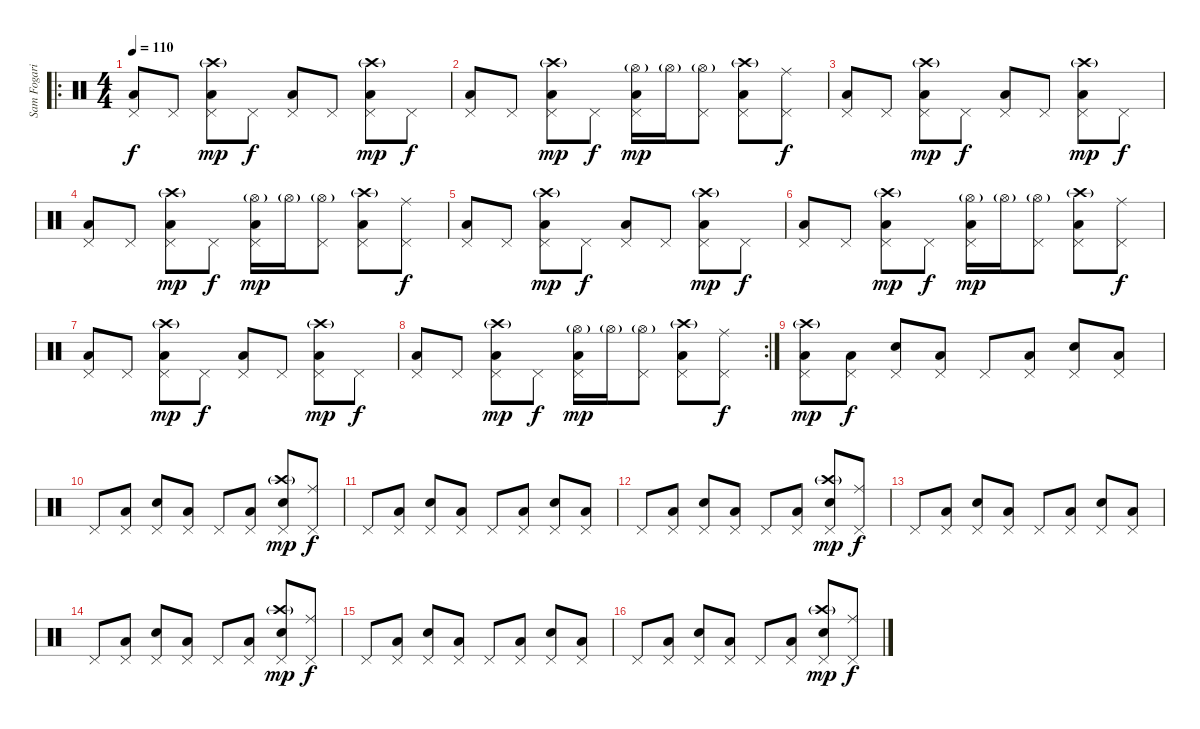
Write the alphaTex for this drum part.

\track ("Sam Fogarino (Drums)" "Sam Fogari") {instrument percussion}
\staff {score}
\articulation defaults
\ro
\ts (4 4)
\tempo 110
\clef neutral
\ks c
("Low Tom (hit)" "Pedal Hi-Hat (hit)").8{dy f} "Pedal Hi-Hat (hit)".8 ("Crash high (hit)"{g} "Low Tom (hit)" "Pedal Hi-Hat (hit)").8{dy mp} "Pedal Hi-Hat (hit)".8{dy f} ("Low Tom (hit)" "Pedal Hi-Hat (hit)").8 "Pedal Hi-Hat (hit)".8 ("Crash high (hit)"{g} "Low Tom (hit)" "Pedal Hi-Hat (hit)").8{dy mp} "Pedal Hi-Hat (hit)".8{dy f} |
("Low Tom (hit)" "Pedal Hi-Hat (hit)").8 "Pedal Hi-Hat (hit)".8 ("Crash high (hit)"{g} "Low Tom (hit)" "Pedal Hi-Hat (hit)").8{dy mp} "Pedal Hi-Hat (hit)".8{dy f} ("Hi-Hat (open)"{g} "Low Tom (hit)" "Pedal Hi-Hat (hit)").16{dy mp} "Hi-Hat (open)"{g}.16 ("Hi-Hat (open)"{g} "Pedal Hi-Hat (hit)").8 ("Crash high (hit)"{g} "Low Tom (hit)" "Pedal Hi-Hat (hit)").8 ("Ride (middle)" "Pedal Hi-Hat (hit)").8{dy f} |
("Low Tom (hit)" "Pedal Hi-Hat (hit)").8 "Pedal Hi-Hat (hit)".8 ("Crash high (hit)"{g} "Low Tom (hit)" "Pedal Hi-Hat (hit)").8{dy mp} "Pedal Hi-Hat (hit)".8{dy f} ("Low Tom (hit)" "Pedal Hi-Hat (hit)").8 "Pedal Hi-Hat (hit)".8 ("Crash high (hit)"{g} "Low Tom (hit)" "Pedal Hi-Hat (hit)").8{dy mp} "Pedal Hi-Hat (hit)".8{dy f} |
("Low Tom (hit)" "Pedal Hi-Hat (hit)").8 "Pedal Hi-Hat (hit)".8 ("Crash high (hit)"{g} "Low Tom (hit)" "Pedal Hi-Hat (hit)").8{dy mp} "Pedal Hi-Hat (hit)".8{dy f} ("Hi-Hat (open)"{g} "Low Tom (hit)" "Pedal Hi-Hat (hit)").16{dy mp} "Hi-Hat (open)"{g}.16 ("Hi-Hat (open)"{g} "Pedal Hi-Hat (hit)").8 ("Crash high (hit)"{g} "Low Tom (hit)" "Pedal Hi-Hat (hit)").8 ("Ride (middle)" "Pedal Hi-Hat (hit)").8{dy f} |
("Low Tom (hit)" "Pedal Hi-Hat (hit)").8 "Pedal Hi-Hat (hit)".8 ("Crash high (hit)"{g} "Low Tom (hit)" "Pedal Hi-Hat (hit)").8{dy mp} "Pedal Hi-Hat (hit)".8{dy f} ("Low Tom (hit)" "Pedal Hi-Hat (hit)").8 "Pedal Hi-Hat (hit)".8 ("Crash high (hit)"{g} "Low Tom (hit)" "Pedal Hi-Hat (hit)").8{dy mp} "Pedal Hi-Hat (hit)".8{dy f} |
("Low Tom (hit)" "Pedal Hi-Hat (hit)").8 "Pedal Hi-Hat (hit)".8 ("Crash high (hit)"{g} "Low Tom (hit)" "Pedal Hi-Hat (hit)").8{dy mp} "Pedal Hi-Hat (hit)".8{dy f} ("Hi-Hat (open)"{g} "Low Tom (hit)" "Pedal Hi-Hat (hit)").16{dy mp} "Hi-Hat (open)"{g}.16 ("Hi-Hat (open)"{g} "Pedal Hi-Hat (hit)").8 ("Crash high (hit)"{g} "Low Tom (hit)" "Pedal Hi-Hat (hit)").8 ("Ride (middle)" "Pedal Hi-Hat (hit)").8{dy f} |
("Low Tom (hit)" "Pedal Hi-Hat (hit)").8 "Pedal Hi-Hat (hit)".8 ("Crash high (hit)"{g} "Low Tom (hit)" "Pedal Hi-Hat (hit)").8{dy mp} "Pedal Hi-Hat (hit)".8{dy f} ("Low Tom (hit)" "Pedal Hi-Hat (hit)").8 "Pedal Hi-Hat (hit)".8 ("Crash high (hit)"{g} "Low Tom (hit)" "Pedal Hi-Hat (hit)").8{dy mp} "Pedal Hi-Hat (hit)".8{dy f} |
\rc 2
("Low Tom (hit)" "Pedal Hi-Hat (hit)").8 "Pedal Hi-Hat (hit)".8 ("Crash high (hit)"{g} "Low Tom (hit)" "Pedal Hi-Hat (hit)").8{dy mp} "Pedal Hi-Hat (hit)".8{dy f} ("Hi-Hat (open)"{g} "Low Tom (hit)" "Pedal Hi-Hat (hit)").16{dy mp} "Hi-Hat (open)"{g}.16 ("Hi-Hat (open)"{g} "Pedal Hi-Hat (hit)").8 ("Crash high (hit)"{g} "Low Tom (hit)" "Pedal Hi-Hat (hit)").8 ("Ride (middle)" "Pedal Hi-Hat (hit)").8{dy f} |
("Crash high (hit)"{g} "Low Tom (hit)" "Pedal Hi-Hat (hit)").8{dy mp} ("Low Tom (hit)" "Pedal Hi-Hat (hit)").8{dy f} ("Snare (hit) 2" "Pedal Hi-Hat (hit)").8 ("Low Tom (hit)" "Pedal Hi-Hat (hit)").8 "Pedal Hi-Hat (hit)".8 ("Low Tom (hit)" "Pedal Hi-Hat (hit)").8 ("Snare (hit) 2" "Pedal Hi-Hat (hit)").8 ("Low Tom (hit)" "Pedal Hi-Hat (hit)").8 |
"Pedal Hi-Hat (hit)".8 ("Low Tom (hit)" "Pedal Hi-Hat (hit)").8 ("Snare (hit) 2" "Pedal Hi-Hat (hit)").8 ("Low Tom (hit)" "Pedal Hi-Hat (hit)").8 "Pedal Hi-Hat (hit)".8 ("Low Tom (hit)" "Pedal Hi-Hat (hit)").8 ("Crash high (hit)"{g} "Snare (hit) 2" "Pedal Hi-Hat (hit)").8{dy mp} ("Ride (middle)" "Pedal Hi-Hat (hit)").8{dy f} |
"Pedal Hi-Hat (hit)".8 ("Low Tom (hit)" "Pedal Hi-Hat (hit)").8 ("Snare (hit) 2" "Pedal Hi-Hat (hit)").8 ("Low Tom (hit)" "Pedal Hi-Hat (hit)").8 "Pedal Hi-Hat (hit)".8 ("Low Tom (hit)" "Pedal Hi-Hat (hit)").8 ("Snare (hit) 2" "Pedal Hi-Hat (hit)").8 ("Low Tom (hit)" "Pedal Hi-Hat (hit)").8 |
"Pedal Hi-Hat (hit)".8 ("Low Tom (hit)" "Pedal Hi-Hat (hit)").8 ("Snare (hit) 2" "Pedal Hi-Hat (hit)").8 ("Low Tom (hit)" "Pedal Hi-Hat (hit)").8 "Pedal Hi-Hat (hit)".8 ("Low Tom (hit)" "Pedal Hi-Hat (hit)").8 ("Crash high (hit)"{g} "Snare (hit) 2" "Pedal Hi-Hat (hit)").8{dy mp} ("Ride (middle)" "Pedal Hi-Hat (hit)").8{dy f} |
"Pedal Hi-Hat (hit)".8 ("Low Tom (hit)" "Pedal Hi-Hat (hit)").8 ("Snare (hit) 2" "Pedal Hi-Hat (hit)").8 ("Low Tom (hit)" "Pedal Hi-Hat (hit)").8 "Pedal Hi-Hat (hit)".8 ("Low Tom (hit)" "Pedal Hi-Hat (hit)").8 ("Snare (hit) 2" "Pedal Hi-Hat (hit)").8 ("Low Tom (hit)" "Pedal Hi-Hat (hit)").8 |
"Pedal Hi-Hat (hit)".8 ("Low Tom (hit)" "Pedal Hi-Hat (hit)").8 ("Snare (hit) 2" "Pedal Hi-Hat (hit)").8 ("Low Tom (hit)" "Pedal Hi-Hat (hit)").8 "Pedal Hi-Hat (hit)".8 ("Low Tom (hit)" "Pedal Hi-Hat (hit)").8 ("Crash high (hit)"{g} "Snare (hit) 2" "Pedal Hi-Hat (hit)").8{dy mp} ("Ride (middle)" "Pedal Hi-Hat (hit)").8{dy f} |
"Pedal Hi-Hat (hit)".8 ("Low Tom (hit)" "Pedal Hi-Hat (hit)").8 ("Snare (hit) 2" "Pedal Hi-Hat (hit)").8 ("Low Tom (hit)" "Pedal Hi-Hat (hit)").8 "Pedal Hi-Hat (hit)".8 ("Low Tom (hit)" "Pedal Hi-Hat (hit)").8 ("Snare (hit) 2" "Pedal Hi-Hat (hit)").8 ("Low Tom (hit)" "Pedal Hi-Hat (hit)").8 |
"Pedal Hi-Hat (hit)".8 ("Low Tom (hit)" "Pedal Hi-Hat (hit)").8 ("Snare (hit) 2" "Pedal Hi-Hat (hit)").8 ("Low Tom (hit)" "Pedal Hi-Hat (hit)").8 "Pedal Hi-Hat (hit)".8 ("Low Tom (hit)" "Pedal Hi-Hat (hit)").8 ("Crash high (hit)"{g} "Snare (hit) 2" "Pedal Hi-Hat (hit)").8{dy mp} ("Ride (middle)" "Pedal Hi-Hat (hit)").8{dy f}
